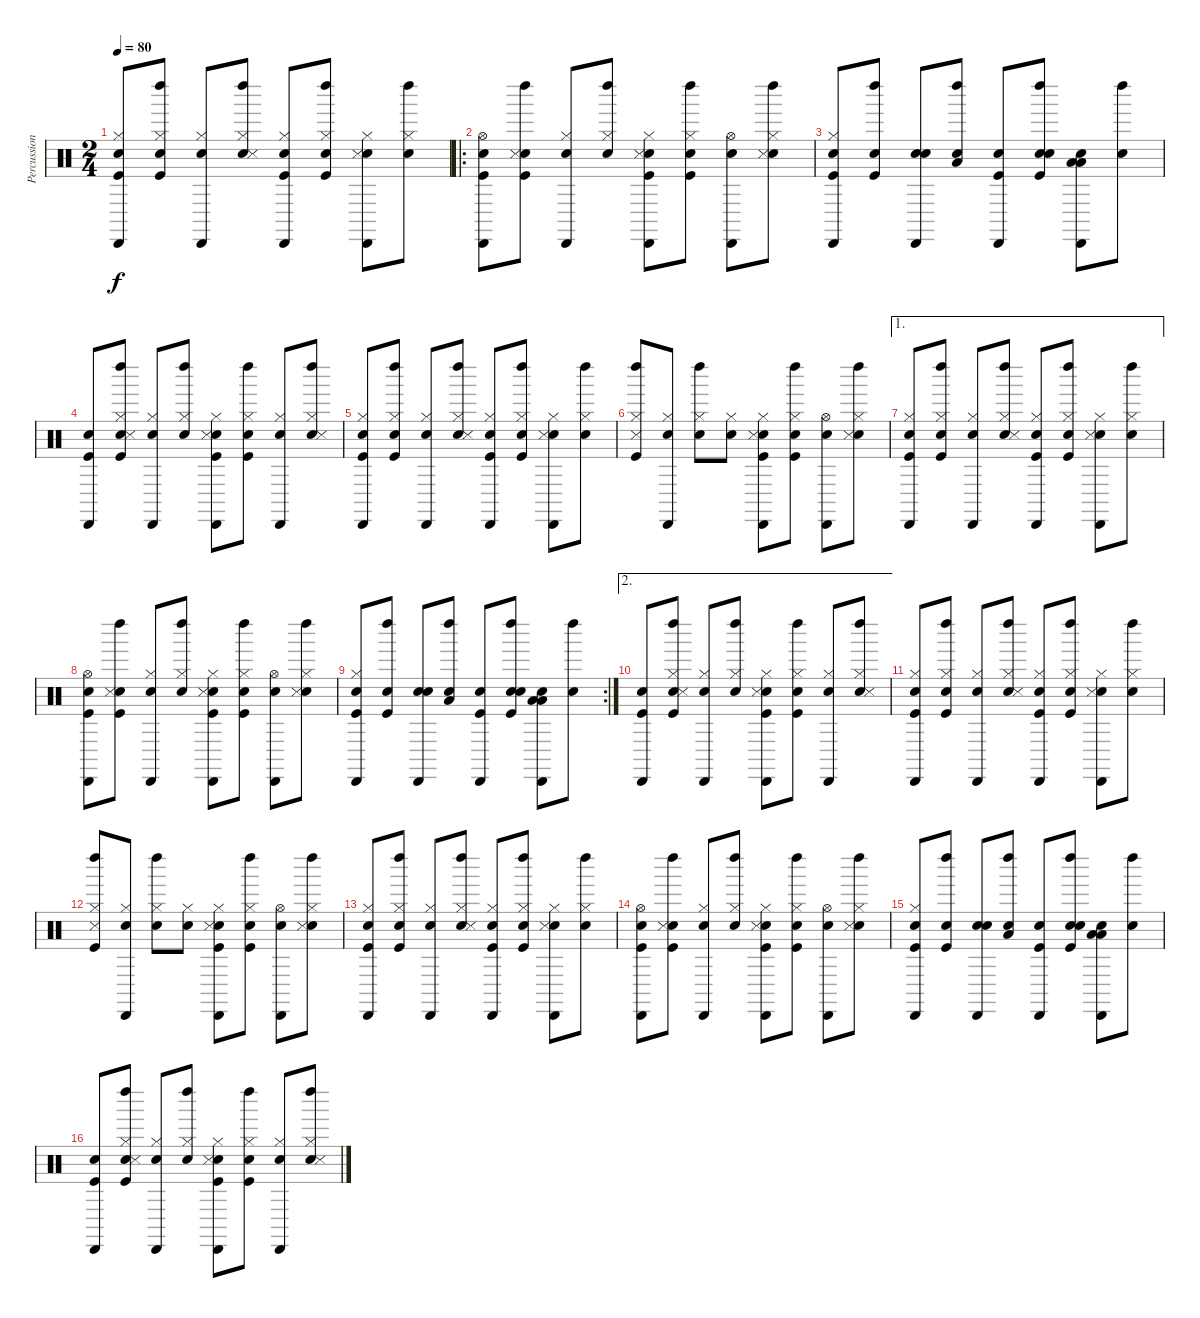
\track ("Percussions" "Percussion") {instrument percussion}
\staff {score}
\articulation defaults
\ts (2 4)
\tempo 80
\clef neutral
\ks c
("Snare (hit)" "Kick (hit)" "Hi-Hat (closed)" "Cabasa (hit)").8{dy f} ("Snare (hit)" "Kick (hit)" "Hi-Hat (closed)" "Left Maraca (hit)").8 ("Snare (hit)" "Hi-Hat (closed)" "Cabasa (hit)").8 ("Snare (hit)" "Hi-Hat (closed)" "Snare (side stick) 3" "Left Maraca (hit)").8 ("Snare (hit)" "Kick (hit)" "Hi-Hat (closed)" "Cabasa (hit)").8 ("Snare (hit)" "Kick (hit)" "Hi-Hat (closed)" "Left Maraca (hit)").8 ("Snare (hit)" "Hi-Hat (closed)" "Snare (side stick) 3" "Cabasa (hit)").8 ("Snare (hit)" "Hi-Hat (closed)" "Left Maraca (hit)").8 |
\ro
("Snare (hit)" "Kick (hit)" "Hi-Hat (open)" "Cabasa (hit)").8 ("Snare (hit)" "Kick (hit)" "Snare (side stick) 3" "Left Maraca (hit)").8 ("Snare (hit)" "Hi-Hat (closed)" "Cabasa (hit)").8 ("Snare (hit)" "Hi-Hat (closed)" "Left Maraca (hit)").8 ("Snare (hit)" "Kick (hit)" "Hi-Hat (closed)" "Snare (side stick) 3" "Cabasa (hit)").8 ("Snare (hit)" "Kick (hit)" "Hi-Hat (closed)" "Left Maraca (hit)").8 ("Snare (hit)" "Hi-Hat (open)" "Cabasa (hit)").8 ("Snare (hit)" "Hi-Hat (closed)" "Snare (side stick) 3" "Left Maraca (hit)").8 |
("Snare (hit)" "Kick (hit)" "Hi-Hat (closed)" "Cabasa (hit)").8 ("Snare (hit)" "Kick (hit)" "Left Maraca (hit)").8 ("Snare (hit)" "Snare (hit) 2" "Cabasa (hit)").8 ("Snare (hit)" "Low Tom (hit)" "Left Maraca (hit)").8 ("Snare (hit)" "Kick (hit)" "Cabasa (hit)").8 ("Snare (hit)" "Kick (hit)" "Snare (hit) 2" "Left Maraca (hit)").8 ("Snare (hit)" "Low Floor Tom (hit)" "Low Tom (hit)" "Cabasa (hit)").8 ("Snare (hit)" "Left Maraca (hit)").8 |
("Snare (hit)" "Kick (hit)" "Cabasa (hit)").8 ("Snare (hit)" "Kick (hit)" "Hi-Hat (closed)" "Snare (side stick) 3" "Left Maraca (hit)").8 ("Snare (hit)" "Hi-Hat (closed)" "Cabasa (hit)").8 ("Snare (hit)" "Hi-Hat (closed)" "Left Maraca (hit)").8 ("Snare (hit)" "Kick (hit)" "Hi-Hat (closed)" "Snare (side stick) 3" "Cabasa (hit)").8 ("Snare (hit)" "Kick (hit)" "Hi-Hat (closed)" "Left Maraca (hit)").8 ("Snare (hit)" "Hi-Hat (closed)" "Cabasa (hit)").8 ("Snare (hit)" "Hi-Hat (closed)" "Snare (side stick) 3" "Left Maraca (hit)").8 |
("Snare (hit)" "Kick (hit)" "Hi-Hat (closed)" "Cabasa (hit)").8 ("Snare (hit)" "Kick (hit)" "Hi-Hat (closed)" "Left Maraca (hit)").8 ("Snare (hit)" "Hi-Hat (closed)" "Cabasa (hit)").8 ("Snare (hit)" "Hi-Hat (closed)" "Snare (side stick) 3" "Left Maraca (hit)").8 ("Snare (hit)" "Kick (hit)" "Hi-Hat (closed)" "Cabasa (hit)").8 ("Snare (hit)" "Kick (hit)" "Hi-Hat (closed)" "Left Maraca (hit)").8 ("Snare (hit)" "Hi-Hat (closed)" "Snare (side stick) 3" "Cabasa (hit)").8 ("Snare (hit)" "Hi-Hat (closed)" "Left Maraca (hit)").8 |
("Kick (hit)" "Hi-Hat (closed)" "Snare (side stick) 3" "Left Maraca (hit)").8 ("Snare (hit)" "Hi-Hat (closed)" "Cabasa (hit)").8 ("Snare (hit)" "Hi-Hat (closed)" "Left Maraca (hit)").8 ("Snare (hit)" "Hi-Hat (closed)").8 ("Snare (hit)" "Kick (hit)" "Hi-Hat (closed)" "Snare (side stick) 3" "Cabasa (hit)").8 ("Snare (hit)" "Kick (hit)" "Hi-Hat (closed)" "Left Maraca (hit)").8 ("Snare (hit)" "Hi-Hat (open)" "Cabasa (hit)").8 ("Snare (hit)" "Hi-Hat (closed)" "Snare (side stick) 3" "Left Maraca (hit)").8 |
\ae 1
("Snare (hit)" "Kick (hit)" "Hi-Hat (closed)" "Cabasa (hit)").8 ("Snare (hit)" "Kick (hit)" "Hi-Hat (closed)" "Left Maraca (hit)").8 ("Snare (hit)" "Hi-Hat (closed)" "Cabasa (hit)").8 ("Snare (hit)" "Hi-Hat (closed)" "Snare (side stick) 3" "Left Maraca (hit)").8 ("Snare (hit)" "Kick (hit)" "Hi-Hat (closed)" "Cabasa (hit)").8 ("Snare (hit)" "Kick (hit)" "Hi-Hat (closed)" "Left Maraca (hit)").8 ("Snare (hit)" "Hi-Hat (closed)" "Snare (side stick) 3" "Cabasa (hit)").8 ("Snare (hit)" "Hi-Hat (closed)" "Left Maraca (hit)").8 |
("Snare (hit)" "Kick (hit)" "Hi-Hat (open)" "Cabasa (hit)").8 ("Snare (hit)" "Kick (hit)" "Snare (side stick) 3" "Left Maraca (hit)").8 ("Snare (hit)" "Hi-Hat (closed)" "Cabasa (hit)").8 ("Snare (hit)" "Hi-Hat (closed)" "Left Maraca (hit)").8 ("Snare (hit)" "Kick (hit)" "Hi-Hat (closed)" "Snare (side stick) 3" "Cabasa (hit)").8 ("Snare (hit)" "Kick (hit)" "Hi-Hat (closed)" "Left Maraca (hit)").8 ("Snare (hit)" "Hi-Hat (open)" "Cabasa (hit)").8 ("Snare (hit)" "Hi-Hat (closed)" "Snare (side stick) 3" "Left Maraca (hit)").8 |
\rc 2
("Snare (hit)" "Kick (hit)" "Hi-Hat (closed)" "Cabasa (hit)").8 ("Snare (hit)" "Kick (hit)" "Left Maraca (hit)").8 ("Snare (hit)" "Snare (hit) 2" "Cabasa (hit)").8 ("Snare (hit)" "Low Tom (hit)" "Left Maraca (hit)").8 ("Snare (hit)" "Kick (hit)" "Cabasa (hit)").8 ("Snare (hit)" "Kick (hit)" "Snare (hit) 2" "Left Maraca (hit)").8 ("Snare (hit)" "Low Floor Tom (hit)" "Low Tom (hit)" "Cabasa (hit)").8 ("Snare (hit)" "Left Maraca (hit)").8 |
\ae 2
("Snare (hit)" "Kick (hit)" "Cabasa (hit)").8 ("Snare (hit)" "Kick (hit)" "Hi-Hat (closed)" "Snare (side stick) 3" "Left Maraca (hit)").8 ("Snare (hit)" "Hi-Hat (closed)" "Cabasa (hit)").8 ("Snare (hit)" "Hi-Hat (closed)" "Left Maraca (hit)").8 ("Snare (hit)" "Kick (hit)" "Hi-Hat (closed)" "Snare (side stick) 3" "Cabasa (hit)").8 ("Snare (hit)" "Kick (hit)" "Hi-Hat (closed)" "Left Maraca (hit)").8 ("Snare (hit)" "Hi-Hat (closed)" "Cabasa (hit)").8 ("Snare (hit)" "Hi-Hat (closed)" "Snare (side stick) 3" "Left Maraca (hit)").8 |
("Snare (hit)" "Kick (hit)" "Hi-Hat (closed)" "Cabasa (hit)").8 ("Snare (hit)" "Kick (hit)" "Hi-Hat (closed)" "Left Maraca (hit)").8 ("Snare (hit)" "Hi-Hat (closed)" "Cabasa (hit)").8 ("Snare (hit)" "Hi-Hat (closed)" "Snare (side stick) 3" "Left Maraca (hit)").8 ("Snare (hit)" "Kick (hit)" "Hi-Hat (closed)" "Cabasa (hit)").8 ("Snare (hit)" "Kick (hit)" "Hi-Hat (closed)" "Left Maraca (hit)").8 ("Snare (hit)" "Hi-Hat (closed)" "Snare (side stick) 3" "Cabasa (hit)").8 ("Snare (hit)" "Hi-Hat (closed)" "Left Maraca (hit)").8 |
("Kick (hit)" "Hi-Hat (closed)" "Snare (side stick) 3" "Left Maraca (hit)").8 ("Snare (hit)" "Hi-Hat (closed)" "Cabasa (hit)").8 ("Snare (hit)" "Hi-Hat (closed)" "Left Maraca (hit)").8 ("Snare (hit)" "Hi-Hat (closed)").8 ("Snare (hit)" "Kick (hit)" "Hi-Hat (closed)" "Snare (side stick) 3" "Cabasa (hit)").8 ("Snare (hit)" "Kick (hit)" "Hi-Hat (closed)" "Left Maraca (hit)").8 ("Snare (hit)" "Hi-Hat (open)" "Cabasa (hit)").8 ("Snare (hit)" "Hi-Hat (closed)" "Snare (side stick) 3" "Left Maraca (hit)").8 |
("Snare (hit)" "Kick (hit)" "Hi-Hat (closed)" "Cabasa (hit)").8 ("Snare (hit)" "Kick (hit)" "Hi-Hat (closed)" "Left Maraca (hit)").8 ("Snare (hit)" "Hi-Hat (closed)" "Cabasa (hit)").8 ("Snare (hit)" "Hi-Hat (closed)" "Snare (side stick) 3" "Left Maraca (hit)").8 ("Snare (hit)" "Kick (hit)" "Hi-Hat (closed)" "Cabasa (hit)").8 ("Snare (hit)" "Kick (hit)" "Hi-Hat (closed)" "Left Maraca (hit)").8 ("Snare (hit)" "Hi-Hat (closed)" "Snare (side stick) 3" "Cabasa (hit)").8 ("Snare (hit)" "Hi-Hat (closed)" "Left Maraca (hit)").8 |
("Snare (hit)" "Kick (hit)" "Hi-Hat (open)" "Cabasa (hit)").8 ("Snare (hit)" "Kick (hit)" "Snare (side stick) 3" "Left Maraca (hit)").8 ("Snare (hit)" "Hi-Hat (closed)" "Cabasa (hit)").8 ("Snare (hit)" "Hi-Hat (closed)" "Left Maraca (hit)").8 ("Snare (hit)" "Kick (hit)" "Hi-Hat (closed)" "Snare (side stick) 3" "Cabasa (hit)").8 ("Snare (hit)" "Kick (hit)" "Hi-Hat (closed)" "Left Maraca (hit)").8 ("Snare (hit)" "Hi-Hat (open)" "Cabasa (hit)").8 ("Snare (hit)" "Hi-Hat (closed)" "Snare (side stick) 3" "Left Maraca (hit)").8 |
("Snare (hit)" "Kick (hit)" "Hi-Hat (closed)" "Cabasa (hit)").8 ("Snare (hit)" "Kick (hit)" "Left Maraca (hit)").8 ("Snare (hit)" "Snare (hit) 2" "Cabasa (hit)").8 ("Snare (hit)" "Low Tom (hit)" "Left Maraca (hit)").8 ("Snare (hit)" "Kick (hit)" "Cabasa (hit)").8 ("Snare (hit)" "Kick (hit)" "Snare (hit) 2" "Left Maraca (hit)").8 ("Snare (hit)" "Low Floor Tom (hit)" "Low Tom (hit)" "Cabasa (hit)").8 ("Snare (hit)" "Left Maraca (hit)").8 |
("Snare (hit)" "Kick (hit)" "Cabasa (hit)").8 ("Snare (hit)" "Kick (hit)" "Hi-Hat (closed)" "Snare (side stick) 3" "Left Maraca (hit)").8 ("Snare (hit)" "Hi-Hat (closed)" "Cabasa (hit)").8 ("Snare (hit)" "Hi-Hat (closed)" "Left Maraca (hit)").8 ("Snare (hit)" "Kick (hit)" "Hi-Hat (closed)" "Snare (side stick) 3" "Cabasa (hit)").8 ("Snare (hit)" "Kick (hit)" "Hi-Hat (closed)" "Left Maraca (hit)").8 ("Snare (hit)" "Hi-Hat (closed)" "Cabasa (hit)").8 ("Snare (hit)" "Hi-Hat (closed)" "Snare (side stick) 3" "Left Maraca (hit)").8
